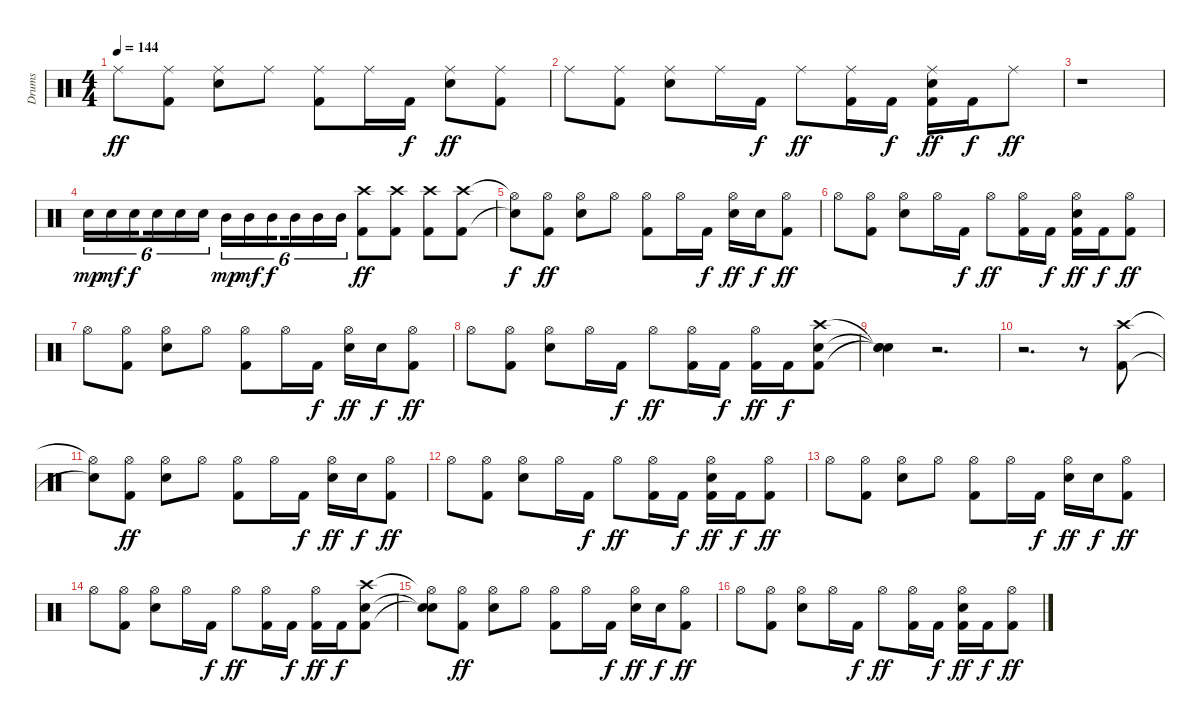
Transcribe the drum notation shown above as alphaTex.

\track ("Drums" "Drums") {instrument percussion}
\staff {score}
\articulation defaults
\ts (4 4)
\tempo 144
\clef neutral
\ks c "Ride (middle)".8{dy ff}
("Ride (middle)" "Kick (hit) 2").8 ("Ride (middle)" "Snare (hit) 2").8 "Ride (middle)".8 ("Ride (middle)" "Kick (hit) 2").8 "Ride (middle)".16 "Kick (hit) 2".16{dy f} ("Ride (middle)" "Snare (hit) 2").8{dy ff} ("Ride (middle)" "Kick (hit) 2").8 |
"Ride (middle)".8 ("Ride (middle)" "Kick (hit) 2").8 ("Ride (middle)" "Snare (hit) 2").8 "Ride (middle)".16 "Kick (hit) 2".16{dy f} "Ride (middle)".8{dy ff} ("Ride (middle)" "Kick (hit) 2").16 "Kick (hit) 2".16{dy f} ("Ride (middle)" "Snare (hit) 2" "Kick (hit) 2").16{dy ff} "Kick (hit) 2".16{dy f} "Ride (middle)".8{dy ff} |
r.1 |
"Snare (hit) 2".16{tu (6 4) dy mp} "Snare (hit) 2".16{tu (6 4) dy mf} "Snare (hit) 2".16{tu (6 4) dy f beam splitsecondary} "Snare (hit) 2".16{tu (6 4)} "Snare (hit) 2".16{tu (6 4)} "Snare (hit) 2".16{tu (6 4)} "Mid Tom (hit)".16{tu (6 4) dy mp} "Mid Tom (hit)".16{tu (6 4) dy mf} "Mid Tom (hit)".16{tu (6 4) dy f beam splitsecondary} "Mid Tom (hit)".16{tu (6 4)} "Mid Tom (hit)".16{tu (6 4)} "Mid Tom (hit)".16{tu (6 4)} ("Crash high (hit)" "Kick (hit) 2").8{dy ff} ("Crash high (hit)" "Kick (hit) 2").8 ("Crash high (hit)" "Kick (hit) 2").8 ("Crash high (hit)" "Kick (hit) 2").8 |
("Hi-Hat (open)"{t} "Snare (hit)"{t}).8{dy f} ("Hi-Hat (open)" "Kick (hit) 2").8{dy ff} ("Hi-Hat (open)" "Snare (hit) 2").8 "Hi-Hat (open)".8 ("Hi-Hat (open)" "Kick (hit) 2").8 "Hi-Hat (open)".16 "Kick (hit) 2".16{dy f} ("Hi-Hat (open)" "Snare (hit) 2").16{dy ff} "Snare (hit) 2".16{dy f} ("Hi-Hat (open)" "Kick (hit) 2").8{dy ff} |
"Hi-Hat (open)".8 ("Hi-Hat (open)" "Kick (hit) 2").8 ("Hi-Hat (open)" "Snare (hit) 2").8 "Hi-Hat (open)".16 "Kick (hit) 2".16{dy f} "Hi-Hat (open)".8{dy ff} ("Hi-Hat (open)" "Kick (hit) 2").16 "Kick (hit) 2".16{dy f} ("Hi-Hat (open)" "Snare (hit) 2" "Kick (hit) 2").16{dy ff} "Kick (hit) 2".16{dy f} ("Hi-Hat (open)" "Kick (hit) 2").8{dy ff} |
"Hi-Hat (open)".8 ("Hi-Hat (open)" "Kick (hit) 2").8 ("Hi-Hat (open)" "Snare (hit) 2").8 "Hi-Hat (open)".8 ("Hi-Hat (open)" "Kick (hit) 2").8 "Hi-Hat (open)".16 "Kick (hit) 2".16{dy f} ("Hi-Hat (open)" "Snare (hit) 2").16{dy ff} "Snare (hit) 2".16{dy f} ("Hi-Hat (open)" "Kick (hit) 2").8{dy ff} |
"Hi-Hat (open)".8 ("Hi-Hat (open)" "Kick (hit) 2").8 ("Hi-Hat (open)" "Snare (hit) 2").8 "Hi-Hat (open)".16 "Kick (hit) 2".16{dy f} "Hi-Hat (open)".8{dy ff} ("Hi-Hat (open)" "Kick (hit) 2").16 "Kick (hit) 2".16{dy f} ("Hi-Hat (open)" "Kick (hit) 2").16{dy ff} "Kick (hit) 2".16{dy f} ("Crash high (hit)" "Snare (hit) 2" "Kick (hit) 2").8 |
("Snare (hit)"{t} "Snare (hit)"{t} "Snare (hit)"{t}).4 r.2{d} |
r.2{d} r.8 ("Crash high (hit)" "Kick (hit) 2").8 |
("Hi-Hat (open)"{t} "Snare (hit)"{t}).8 ("Hi-Hat (open)" "Kick (hit) 2").8{dy ff} ("Hi-Hat (open)" "Snare (hit) 2").8 "Hi-Hat (open)".8 ("Hi-Hat (open)" "Kick (hit) 2").8 "Hi-Hat (open)".16 "Kick (hit) 2".16{dy f} ("Hi-Hat (open)" "Snare (hit) 2").16{dy ff} "Snare (hit) 2".16{dy f} ("Hi-Hat (open)" "Kick (hit) 2").8{dy ff} |
"Hi-Hat (open)".8 ("Hi-Hat (open)" "Kick (hit) 2").8 ("Hi-Hat (open)" "Snare (hit) 2").8 "Hi-Hat (open)".16 "Kick (hit) 2".16{dy f} "Hi-Hat (open)".8{dy ff} ("Hi-Hat (open)" "Kick (hit) 2").16 "Kick (hit) 2".16{dy f} ("Hi-Hat (open)" "Snare (hit) 2" "Kick (hit) 2").16{dy ff} "Kick (hit) 2".16{dy f} ("Hi-Hat (open)" "Kick (hit) 2").8{dy ff} |
"Hi-Hat (open)".8 ("Hi-Hat (open)" "Kick (hit) 2").8 ("Hi-Hat (open)" "Snare (hit) 2").8 "Hi-Hat (open)".8 ("Hi-Hat (open)" "Kick (hit) 2").8 "Hi-Hat (open)".16 "Kick (hit) 2".16{dy f} ("Hi-Hat (open)" "Snare (hit) 2").16{dy ff} "Snare (hit) 2".16{dy f} ("Hi-Hat (open)" "Kick (hit) 2").8{dy ff} |
"Hi-Hat (open)".8 ("Hi-Hat (open)" "Kick (hit) 2").8 ("Hi-Hat (open)" "Snare (hit) 2").8 "Hi-Hat (open)".16 "Kick (hit) 2".16{dy f} "Hi-Hat (open)".8{dy ff} ("Hi-Hat (open)" "Kick (hit) 2").16 "Kick (hit) 2".16{dy f} ("Hi-Hat (open)" "Kick (hit) 2").16{dy ff} "Kick (hit) 2".16{dy f} ("Crash high (hit)" "Snare (hit) 2" "Kick (hit) 2").8 |
("Hi-Hat (open)"{t} "Snare (hit)"{t} "Snare (hit)"{t}).8 ("Hi-Hat (open)" "Kick (hit) 2").8{dy ff} ("Hi-Hat (open)" "Snare (hit) 2").8 "Hi-Hat (open)".8 ("Hi-Hat (open)" "Kick (hit) 2").8 "Hi-Hat (open)".16 "Kick (hit) 2".16{dy f} ("Hi-Hat (open)" "Snare (hit) 2").16{dy ff} "Snare (hit) 2".16{dy f} ("Hi-Hat (open)" "Kick (hit) 2").8{dy ff} |
"Hi-Hat (open)".8 ("Hi-Hat (open)" "Kick (hit) 2").8 ("Hi-Hat (open)" "Snare (hit) 2").8 "Hi-Hat (open)".16 "Kick (hit) 2".16{dy f} "Hi-Hat (open)".8{dy ff} ("Hi-Hat (open)" "Kick (hit) 2").16 "Kick (hit) 2".16{dy f} ("Hi-Hat (open)" "Snare (hit) 2" "Kick (hit) 2").16{dy ff} "Kick (hit) 2".16{dy f} ("Hi-Hat (open)" "Kick (hit) 2").8{dy ff}
